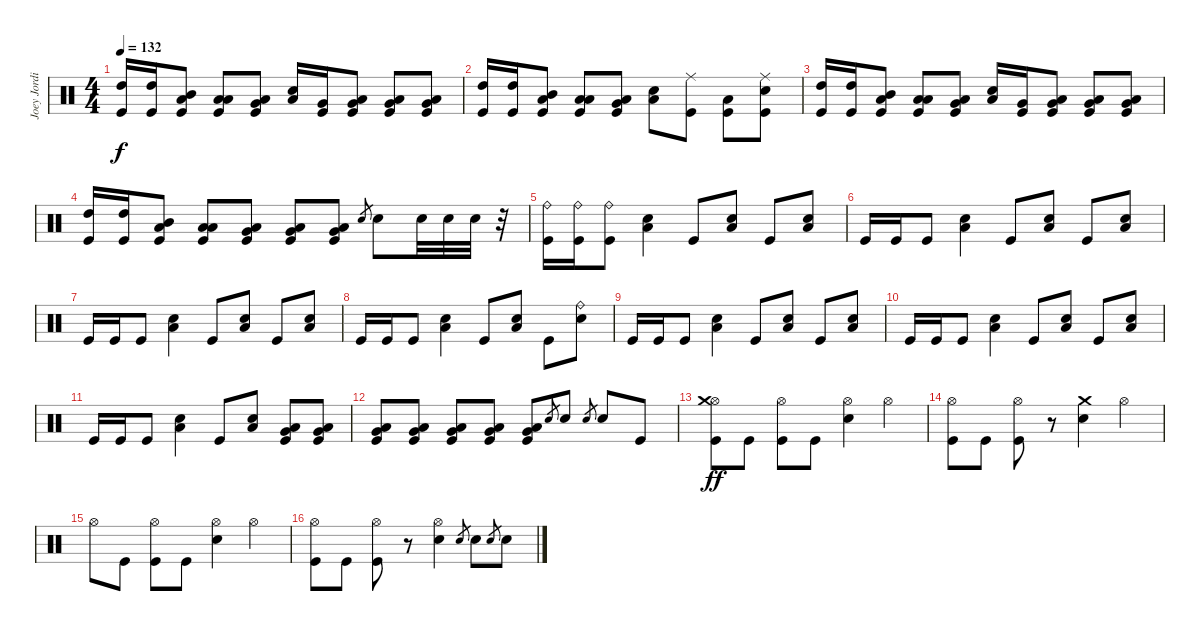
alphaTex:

\track ("Joey Jordison" "Joey Jordi") {instrument percussion}
\staff {score}
\articulation defaults
\ts (4 4)
\tempo 132
\clef neutral
\ks c
("Kick (hit)" "High Tom (hit)").16{dy f} ("Kick (hit)" "High Tom (hit)").16 ("Kick (hit)" "Low Floor Tom (hit)" "Mid Tom (hit)").8 ("Kick (hit)" "Low Floor Tom (hit)" "Low Tom (hit)").8 ("Kick (hit)" "Low Floor Tom (hit)" "Very Low Tom (hit)").8 ("Snare (hit) 2" "Low Floor Tom (hit)").16 ("Kick (hit)" "Very Low Tom (hit)").16 ("Kick (hit)" "Low Floor Tom (hit)" "Very Low Tom (hit)").8 ("Kick (hit)" "Low Floor Tom (hit)" "Very Low Tom (hit)").8 ("Kick (hit)" "Low Floor Tom (hit)" "Very Low Tom (hit)").8 |
("Kick (hit)" "High Tom (hit)").16 ("Kick (hit)" "High Tom (hit)").16 ("Kick (hit)" "Low Floor Tom (hit)" "Mid Tom (hit)").8 ("Kick (hit)" "Low Floor Tom (hit)" "Low Tom (hit)").8 ("Kick (hit)" "Low Floor Tom (hit)" "Very Low Tom (hit)").8 ("Snare (hit) 2" "Low Floor Tom (hit)").8 ("Kick (hit)" "Ride (middle)").8 ("Kick (hit)" "Low Floor Tom (hit)").8 ("Kick (hit)" "Snare (hit) 2" "Ride (middle)").8 |
("Kick (hit)" "High Tom (hit)").16 ("Kick (hit)" "High Tom (hit)").16 ("Kick (hit)" "Low Floor Tom (hit)" "Mid Tom (hit)").8 ("Kick (hit)" "Low Floor Tom (hit)" "Low Tom (hit)").8 ("Kick (hit)" "Low Floor Tom (hit)" "Very Low Tom (hit)").8 ("Snare (hit) 2" "Low Floor Tom (hit)").16 ("Kick (hit)" "Very Low Tom (hit)").16 ("Kick (hit)" "Low Floor Tom (hit)" "Very Low Tom (hit)").8 ("Kick (hit)" "Low Floor Tom (hit)" "Very Low Tom (hit)").8 ("Kick (hit)" "Low Floor Tom (hit)" "Very Low Tom (hit)").8 |
("Kick (hit)" "High Tom (hit)").16 ("Kick (hit)" "High Tom (hit)").16 ("Kick (hit)" "Low Floor Tom (hit)" "Mid Tom (hit)").8 ("Kick (hit)" "Low Floor Tom (hit)" "Low Tom (hit)").8 ("Kick (hit)" "Low Floor Tom (hit)" "Very Low Tom (hit)").8 ("Kick (hit)" "Low Floor Tom (hit)" "Very Low Tom (hit)").8 ("Kick (hit)" "Low Floor Tom (hit)" "Very Low Tom (hit)").8 "Snare (hit)".8{gr} "Snare (hit) 2".8 "Snare (hit) 2".32 "Snare (hit) 2".32 "Snare (hit) 2".32 r.32 |
("Kick (hit)" "Ride (bell)").16 ("Kick (hit)" "Ride (bell)").16 ("Kick (hit)" "Ride (bell)").8 ("Snare (hit) 2" "Low Floor Tom (hit)").4 "Kick (hit)".8 ("Snare (hit) 2" "Low Floor Tom (hit)").8 "Kick (hit)".8 ("Snare (hit) 2" "Low Floor Tom (hit)").8 |
"Kick (hit)".16 "Kick (hit)".16 "Kick (hit)".8 ("Snare (hit) 2" "Low Floor Tom (hit)").4 "Kick (hit)".8 ("Snare (hit) 2" "Low Floor Tom (hit)").8 "Kick (hit)".8 ("Snare (hit) 2" "Low Floor Tom (hit)").8 |
"Kick (hit)".16 "Kick (hit)".16 "Kick (hit)".8 ("Snare (hit) 2" "Low Floor Tom (hit)").4 "Kick (hit)".8 ("Snare (hit) 2" "Low Floor Tom (hit)").8 "Kick (hit)".8 ("Snare (hit) 2" "Low Floor Tom (hit)").8 |
"Kick (hit)".16 "Kick (hit)".16 "Kick (hit)".8 ("Snare (hit) 2" "Low Floor Tom (hit)").4 "Kick (hit)".8 ("Snare (hit) 2" "Low Floor Tom (hit)").8 "Kick (hit)".8 ("Snare (hit) 2" "Ride (bell)").8 |
"Kick (hit)".16 "Kick (hit)".16 "Kick (hit)".8 ("Snare (hit) 2" "Low Floor Tom (hit)").4 "Kick (hit)".8 ("Snare (hit) 2" "Low Floor Tom (hit)").8 "Kick (hit)".8 ("Snare (hit) 2" "Low Floor Tom (hit)").8 |
"Kick (hit)".16 "Kick (hit)".16 "Kick (hit)".8 ("Snare (hit) 2" "Low Floor Tom (hit)").4 "Kick (hit)".8 ("Snare (hit) 2" "Low Floor Tom (hit)").8 "Kick (hit)".8 ("Snare (hit) 2" "Low Floor Tom (hit)").8 |
"Kick (hit)".16 "Kick (hit)".16 "Kick (hit)".8 ("Snare (hit) 2" "Low Floor Tom (hit)").4 "Kick (hit)".8 ("Snare (hit) 2" "Low Floor Tom (hit)").8 ("Low Floor Tom (hit)" "Very Low Tom (hit)" "Kick (hit)").8 ("Low Floor Tom (hit)" "Very Low Tom (hit)" "Kick (hit)").8 |
("Low Floor Tom (hit)" "Very Low Tom (hit)" "Kick (hit)").8 ("Low Floor Tom (hit)" "Very Low Tom (hit)" "Kick (hit)").8 ("Low Floor Tom (hit)" "Very Low Tom (hit)" "Kick (hit)").8 ("Low Floor Tom (hit)" "Very Low Tom (hit)" "Kick (hit)").8 ("Low Floor Tom (hit)" "Very Low Tom (hit)" "Kick (hit)").8 "Snare (hit)".8{gr} "Snare (hit) 2".8 "Snare (hit)".8{gr} "Snare (hit) 2".8 "Kick (hit)".8 |
("Kick (hit)" "Hi-Hat (open)" "Crash medium (hit)").8{dy ff} "Kick (hit)".8 ("Kick (hit)" "Hi-Hat (open)").8 "Kick (hit)".8 ("Snare (hit) 2" "Hi-Hat (open)").4 "Hi-Hat (open)".4 |
("Kick (hit)" "Hi-Hat (open)").8 "Kick (hit)".8 ("Hi-Hat (open)" "Kick (hit)").8 r.8 ("Snare (hit) 2" "Crash medium (hit)").4 "Hi-Hat (open)".4 |
"Hi-Hat (open)".8 "Kick (hit)".8 ("Kick (hit)" "Hi-Hat (open)").8 "Kick (hit)".8 ("Snare (hit) 2" "Hi-Hat (open)").4 "Hi-Hat (open)".4 |
("Kick (hit)" "Hi-Hat (open)").8 "Kick (hit)".8 ("Hi-Hat (open)" "Kick (hit)").8 r.8 ("Hi-Hat (open)" "Snare (hit) 2").4 "Snare (hit)".8{gr} "Snare (hit) 2".8 "Snare (hit)".8{gr} "Snare (hit) 2".8
